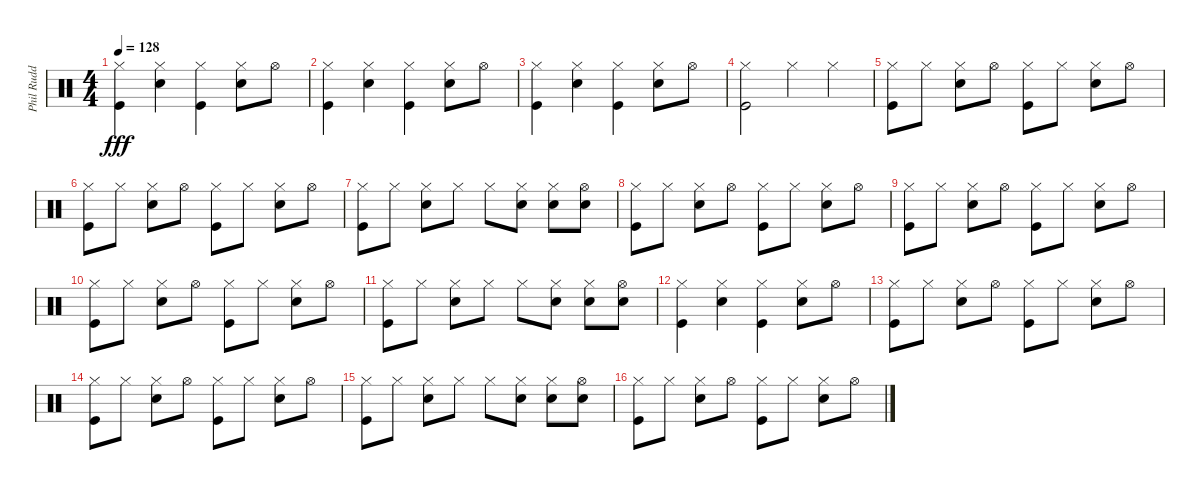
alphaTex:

\track ("Phil Rudd" "Phil Rudd") {instrument percussion}
\staff {score}
\articulation defaults
\ts (4 4)
\tempo 128
\clef neutral
\ks c
("Hi-Hat (closed)" "Kick (hit)").4{dy fff} ("Hi-Hat (closed)" "Snare (hit) 2").4 ("Hi-Hat (closed)" "Kick (hit)").4 ("Hi-Hat (closed)" "Snare (hit) 2").8 "Hi-Hat (open)".8 |
("Hi-Hat (closed)" "Kick (hit)").4 ("Hi-Hat (closed)" "Snare (hit) 2").4 ("Hi-Hat (closed)" "Kick (hit)").4 ("Hi-Hat (closed)" "Snare (hit) 2").8 "Hi-Hat (open)".8 |
("Hi-Hat (closed)" "Kick (hit)").4 ("Hi-Hat (closed)" "Snare (hit) 2").4 ("Hi-Hat (closed)" "Kick (hit)").4 ("Hi-Hat (closed)" "Snare (hit) 2").8 "Hi-Hat (open)".8 |
("Hi-Hat (closed)" "Kick (hit)").2 "Hi-Hat (closed)".4 "Hi-Hat (closed)".4 |
("Hi-Hat (closed)" "Kick (hit)").8 "Hi-Hat (closed)".8 ("Hi-Hat (closed)" "Snare (hit) 2").8 "Hi-Hat (open)".8 ("Hi-Hat (closed)" "Kick (hit)").8 "Hi-Hat (closed)".8 ("Hi-Hat (closed)" "Snare (hit) 2").8 "Hi-Hat (open)".8 |
("Hi-Hat (closed)" "Kick (hit)").8 "Hi-Hat (closed)".8 ("Hi-Hat (closed)" "Snare (hit) 2").8 "Hi-Hat (open)".8 ("Hi-Hat (closed)" "Kick (hit)").8 "Hi-Hat (closed)".8 ("Hi-Hat (closed)" "Snare (hit) 2").8 "Hi-Hat (open)".8 |
("Hi-Hat (closed)" "Kick (hit)").8 "Hi-Hat (closed)".8 ("Hi-Hat (closed)" "Snare (hit) 2").8 "Hi-Hat (closed)".8 "Hi-Hat (closed)".8 ("Hi-Hat (closed)" "Snare (hit) 2").8 ("Hi-Hat (closed)" "Snare (hit) 2").8 ("Hi-Hat (open)" "Snare (hit) 2").8 |
("Hi-Hat (closed)" "Kick (hit)").8 "Hi-Hat (closed)".8 ("Hi-Hat (closed)" "Snare (hit) 2").8 "Hi-Hat (open)".8 ("Hi-Hat (closed)" "Kick (hit)").8 "Hi-Hat (closed)".8 ("Hi-Hat (closed)" "Snare (hit) 2").8 "Hi-Hat (open)".8 |
("Hi-Hat (closed)" "Kick (hit)").8 "Hi-Hat (closed)".8 ("Hi-Hat (closed)" "Snare (hit) 2").8 "Hi-Hat (open)".8 ("Hi-Hat (closed)" "Kick (hit)").8 "Hi-Hat (closed)".8 ("Hi-Hat (closed)" "Snare (hit) 2").8 "Hi-Hat (open)".8 |
("Hi-Hat (closed)" "Kick (hit)").8 "Hi-Hat (closed)".8 ("Hi-Hat (closed)" "Snare (hit) 2").8 "Hi-Hat (open)".8 ("Hi-Hat (closed)" "Kick (hit)").8 "Hi-Hat (closed)".8 ("Hi-Hat (closed)" "Snare (hit) 2").8 "Hi-Hat (open)".8 |
("Hi-Hat (closed)" "Kick (hit)").8 "Hi-Hat (closed)".8 ("Hi-Hat (closed)" "Snare (hit) 2").8 "Hi-Hat (closed)".8 "Hi-Hat (closed)".8 ("Hi-Hat (closed)" "Snare (hit) 2").8 ("Hi-Hat (closed)" "Snare (hit) 2").8 ("Hi-Hat (open)" "Snare (hit) 2").8 |
("Hi-Hat (closed)" "Kick (hit)").4 ("Hi-Hat (closed)" "Snare (hit) 2").4 ("Hi-Hat (closed)" "Kick (hit)").4 ("Hi-Hat (closed)" "Snare (hit) 2").8 "Hi-Hat (open)".8 |
("Hi-Hat (closed)" "Kick (hit)").8 "Hi-Hat (closed)".8 ("Hi-Hat (closed)" "Snare (hit) 2").8 "Hi-Hat (open)".8 ("Hi-Hat (closed)" "Kick (hit)").8 "Hi-Hat (closed)".8 ("Hi-Hat (closed)" "Snare (hit) 2").8 "Hi-Hat (open)".8 |
("Hi-Hat (closed)" "Kick (hit)").8 "Hi-Hat (closed)".8 ("Hi-Hat (closed)" "Snare (hit) 2").8 "Hi-Hat (open)".8 ("Hi-Hat (closed)" "Kick (hit)").8 "Hi-Hat (closed)".8 ("Hi-Hat (closed)" "Snare (hit) 2").8 "Hi-Hat (open)".8 |
("Hi-Hat (closed)" "Kick (hit)").8 "Hi-Hat (closed)".8 ("Hi-Hat (closed)" "Snare (hit) 2").8 "Hi-Hat (closed)".8 "Hi-Hat (closed)".8 ("Hi-Hat (closed)" "Snare (hit) 2").8 ("Hi-Hat (closed)" "Snare (hit) 2").8 ("Hi-Hat (open)" "Snare (hit) 2").8 |
("Hi-Hat (closed)" "Kick (hit)").8 "Hi-Hat (closed)".8 ("Hi-Hat (closed)" "Snare (hit) 2").8 "Hi-Hat (open)".8 ("Hi-Hat (closed)" "Kick (hit)").8 "Hi-Hat (closed)".8 ("Hi-Hat (closed)" "Snare (hit) 2").8 "Hi-Hat (open)".8
